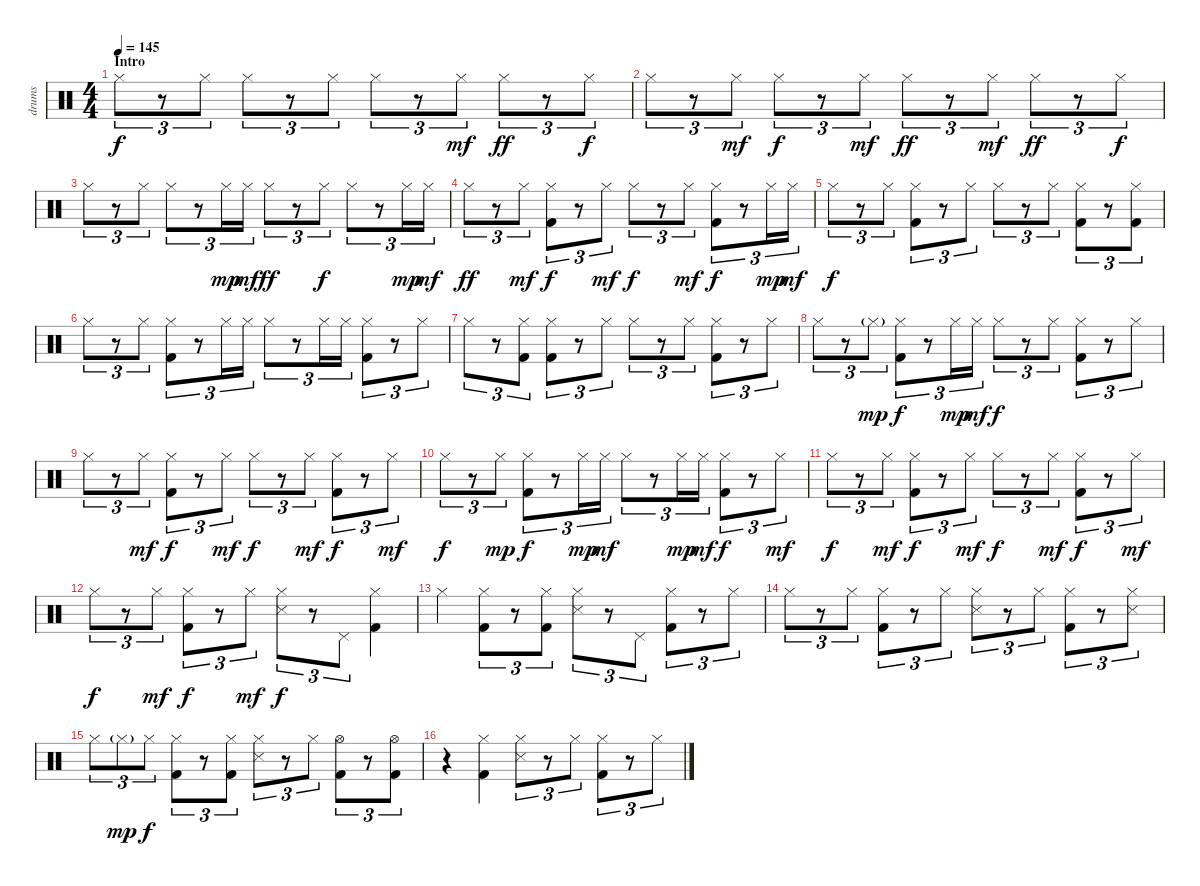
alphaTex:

\track ("drums" "drums") {instrument percussion}
\staff {score}
\articulation defaults
\ts (4 4)
\section ("" "Intro")
\tempo 145
\clef neutral
\ks c "Hi-Hat (closed)".8{tu (3 2) dy f}
r.8{tu (3 2)} "Hi-Hat (closed)".8{tu (3 2)} "Hi-Hat (closed)".8{tu (3 2)} r.8{tu (3 2)} "Hi-Hat (closed)".8{tu (3 2)} "Hi-Hat (closed)".8{tu (3 2)} r.8{tu (3 2)} "Hi-Hat (closed)".8{tu (3 2) dy mf} "Hi-Hat (closed)".8{tu (3 2) dy ff} r.8{tu (3 2)} "Hi-Hat (closed)".8{tu (3 2) dy f} |
"Hi-Hat (closed)".8{tu (3 2)} r.8{tu (3 2)} "Hi-Hat (closed)".8{tu (3 2) dy mf} "Hi-Hat (closed)".8{tu (3 2) dy f} r.8{tu (3 2)} "Hi-Hat (closed)".8{tu (3 2) dy mf} "Hi-Hat (closed)".8{tu (3 2) dy ff} r.8{tu (3 2)} "Hi-Hat (closed)".8{tu (3 2) dy mf} "Hi-Hat (closed)".8{tu (3 2) dy ff} r.8{tu (3 2)} "Hi-Hat (closed)".8{tu (3 2) dy f} |
"Hi-Hat (closed)".8{tu (3 2)} r.8{tu (3 2)} "Hi-Hat (closed)".8{tu (3 2)} "Hi-Hat (closed)".8{tu (3 2)} r.8{tu (3 2)} "Hi-Hat (closed)".16{tu (3 2) dy mp} "Hi-Hat (closed)".16{tu (3 2) dy mf} "Hi-Hat (closed)".8{tu (3 2) dy ff} r.8{tu (3 2)} "Hi-Hat (closed)".8{tu (3 2) dy f} "Hi-Hat (closed)".8{tu (3 2)} r.8{tu (3 2)} "Hi-Hat (closed)".16{tu (3 2) dy mp} "Hi-Hat (closed)".16{tu (3 2) dy mf} |
"Hi-Hat (closed)".8{tu (3 2) dy ff} r.8{tu (3 2)} "Hi-Hat (closed)".8{tu (3 2) dy mf} ("Hi-Hat (closed)" "Kick (hit) 2").8{tu (3 2) dy f} r.8{tu (3 2)} "Hi-Hat (closed)".8{tu (3 2) dy mf} "Hi-Hat (closed)".8{tu (3 2) dy f} r.8{tu (3 2)} "Hi-Hat (closed)".8{tu (3 2) dy mf} ("Hi-Hat (closed)" "Kick (hit) 2").8{tu (3 2) dy f} r.8{tu (3 2)} "Hi-Hat (closed)".16{tu (3 2) dy mp} "Hi-Hat (closed)".16{tu (3 2) dy mf} |
"Hi-Hat (closed)".8{tu (3 2) dy f} r.8{tu (3 2)} "Hi-Hat (closed)".8{tu (3 2)} ("Hi-Hat (closed)" "Kick (hit) 2").8{tu (3 2)} r.8{tu (3 2)} "Hi-Hat (closed)".8{tu (3 2)} "Hi-Hat (closed)".8{tu (3 2)} r.8{tu (3 2)} "Hi-Hat (closed)".8{tu (3 2)} ("Hi-Hat (closed)" "Kick (hit) 2").8{tu (3 2)} r.8{tu (3 2)} ("Hi-Hat (closed)" "Kick (hit) 2").8{tu (3 2)} |
"Hi-Hat (closed)".8{tu (3 2)} r.8{tu (3 2)} "Hi-Hat (closed)".8{tu (3 2)} ("Hi-Hat (closed)" "Kick (hit) 2").8{tu (3 2)} r.8{tu (3 2)} "Hi-Hat (closed)".16{tu (3 2)} "Hi-Hat (closed)".16{tu (3 2)} "Hi-Hat (closed)".8{tu (3 2)} r.8{tu (3 2)} "Hi-Hat (closed)".16{tu (3 2)} "Hi-Hat (closed)".16{tu (3 2)} ("Hi-Hat (closed)" "Kick (hit) 2").8{tu (3 2)} r.8{tu (3 2)} "Hi-Hat (closed)".8{tu (3 2)} |
"Hi-Hat (closed)".8{tu (3 2)} r.8{tu (3 2)} ("Hi-Hat (closed)" "Kick (hit) 2").8{tu (3 2)} ("Hi-Hat (closed)" "Kick (hit) 2").8{tu (3 2)} r.8{tu (3 2)} "Hi-Hat (closed)".8{tu (3 2)} "Hi-Hat (closed)".8{tu (3 2)} r.8{tu (3 2)} "Hi-Hat (closed)".8{tu (3 2)} ("Hi-Hat (closed)" "Kick (hit) 2").8{tu (3 2)} r.8{tu (3 2)} "Hi-Hat (closed)".8{tu (3 2)} |
"Hi-Hat (closed)".8{tu (3 2)} r.8{tu (3 2)} "Hi-Hat (closed)"{g}.8{tu (3 2) dy mp} ("Hi-Hat (closed)" "Kick (hit) 2").8{tu (3 2) dy f} r.8{tu (3 2)} "Hi-Hat (closed)".16{tu (3 2) dy mp} "Hi-Hat (closed)".16{tu (3 2) dy mf} "Hi-Hat (closed)".8{tu (3 2) dy f} r.8{tu (3 2)} "Hi-Hat (closed)".8{tu (3 2)} ("Hi-Hat (closed)" "Kick (hit) 2").8{tu (3 2)} r.8{tu (3 2)} "Hi-Hat (closed)".8{tu (3 2)} |
"Hi-Hat (closed)".8{tu (3 2)} r.8{tu (3 2)} "Hi-Hat (closed)".8{tu (3 2) dy mf} ("Hi-Hat (closed)" "Kick (hit) 2").8{tu (3 2) dy f} r.8{tu (3 2)} "Hi-Hat (closed)".8{tu (3 2) dy mf} "Hi-Hat (closed)".8{tu (3 2) dy f} r.8{tu (3 2)} "Hi-Hat (closed)".8{tu (3 2) dy mf} ("Hi-Hat (closed)" "Kick (hit) 2").8{tu (3 2) dy f} r.8{tu (3 2)} "Hi-Hat (closed)".8{tu (3 2) dy mf} |
"Hi-Hat (closed)".8{tu (3 2) dy f} r.8{tu (3 2)} "Hi-Hat (closed)".8{tu (3 2) dy mp} ("Hi-Hat (closed)" "Kick (hit) 2").8{tu (3 2) dy f} r.8{tu (3 2)} "Hi-Hat (closed)".16{tu (3 2) dy mp} "Hi-Hat (closed)".16{tu (3 2) dy mf} "Hi-Hat (closed)".8{tu (3 2)} r.8{tu (3 2)} "Hi-Hat (closed)".16{tu (3 2) dy mp} "Hi-Hat (closed)".16{tu (3 2) dy mf} ("Hi-Hat (closed)" "Kick (hit) 2").8{tu (3 2) dy f} r.8{tu (3 2)} "Hi-Hat (closed)".8{tu (3 2) dy mf} |
"Hi-Hat (closed)".8{tu (3 2) dy f} r.8{tu (3 2)} "Hi-Hat (closed)".8{tu (3 2) dy mf} ("Hi-Hat (closed)" "Kick (hit) 2").8{tu (3 2) dy f} r.8{tu (3 2)} "Hi-Hat (closed)".8{tu (3 2) dy mf} "Hi-Hat (closed)".8{tu (3 2) dy f} r.8{tu (3 2)} "Hi-Hat (closed)".8{tu (3 2) dy mf} ("Hi-Hat (closed)" "Kick (hit) 2").8{tu (3 2) dy f} r.8{tu (3 2)} "Hi-Hat (closed)".8{tu (3 2) dy mf} |
"Hi-Hat (closed)".8{tu (3 2) dy f} r.8{tu (3 2)} "Hi-Hat (closed)".8{tu (3 2) dy mf} ("Hi-Hat (closed)" "Kick (hit) 2").8{tu (3 2) dy f} r.8{tu (3 2)} "Hi-Hat (closed)".8{tu (3 2) dy mf} ("Hi-Hat (closed)" "Snare (side stick) 3").8{tu (3 2) dy f} r.8{tu (3 2)} "Pedal Hi-Hat (hit)".8{tu (3 2)} ("Hi-Hat (closed)" "Kick (hit) 2").4 |
"Hi-Hat (closed)".4 ("Hi-Hat (closed)" "Kick (hit) 2").8{tu (3 2)} r.8{tu (3 2)} ("Hi-Hat (closed)" "Kick (hit) 2").8{tu (3 2)} ("Hi-Hat (closed)" "Snare (side stick) 3").8{tu (3 2)} r.8{tu (3 2)} "Pedal Hi-Hat (hit)".8{tu (3 2)} ("Hi-Hat (closed)" "Kick (hit) 2").8{tu (3 2)} r.8{tu (3 2)} "Hi-Hat (closed)".8{tu (3 2)} |
"Hi-Hat (closed)".8{tu (3 2)} r.8{tu (3 2)} "Hi-Hat (closed)".8{tu (3 2)} ("Hi-Hat (closed)" "Kick (hit) 2").8{tu (3 2)} r.8{tu (3 2)} "Hi-Hat (closed)".8{tu (3 2)} ("Hi-Hat (closed)" "Snare (side stick) 3").8{tu (3 2)} r.8{tu (3 2)} "Hi-Hat (closed)".8{tu (3 2)} ("Hi-Hat (closed)" "Kick (hit) 2").8{tu (3 2)} r.8{tu (3 2)} ("Hi-Hat (closed)" "Snare (side stick) 3").8{tu (3 2)} |
"Hi-Hat (closed)".8{tu (3 2)} "Hi-Hat (closed)"{g}.8{tu (3 2) dy mp} "Hi-Hat (closed)".8{tu (3 2) dy f} ("Hi-Hat (closed)" "Kick (hit) 2").8{tu (3 2)} r.8{tu (3 2)} ("Hi-Hat (closed)" "Kick (hit) 2").8{tu (3 2)} ("Hi-Hat (closed)" "Snare (side stick) 3").8{tu (3 2)} r.8{tu (3 2)} "Hi-Hat (closed)".8{tu (3 2)} ("Hi-Hat (open)" "Kick (hit) 2").8{tu (3 2)} r.8{tu (3 2)} ("Hi-Hat (open)" "Kick (hit) 2").8{tu (3 2)} |
r.4 ("Hi-Hat (closed)" "Kick (hit) 2").4 ("Hi-Hat (closed)" "Snare (side stick) 3").8{tu (3 2)} r.8{tu (3 2)} "Hi-Hat (closed)".8{tu (3 2)} ("Hi-Hat (closed)" "Kick (hit) 2").8{tu (3 2)} r.8{tu (3 2)} "Hi-Hat (closed)".8{tu (3 2)}
